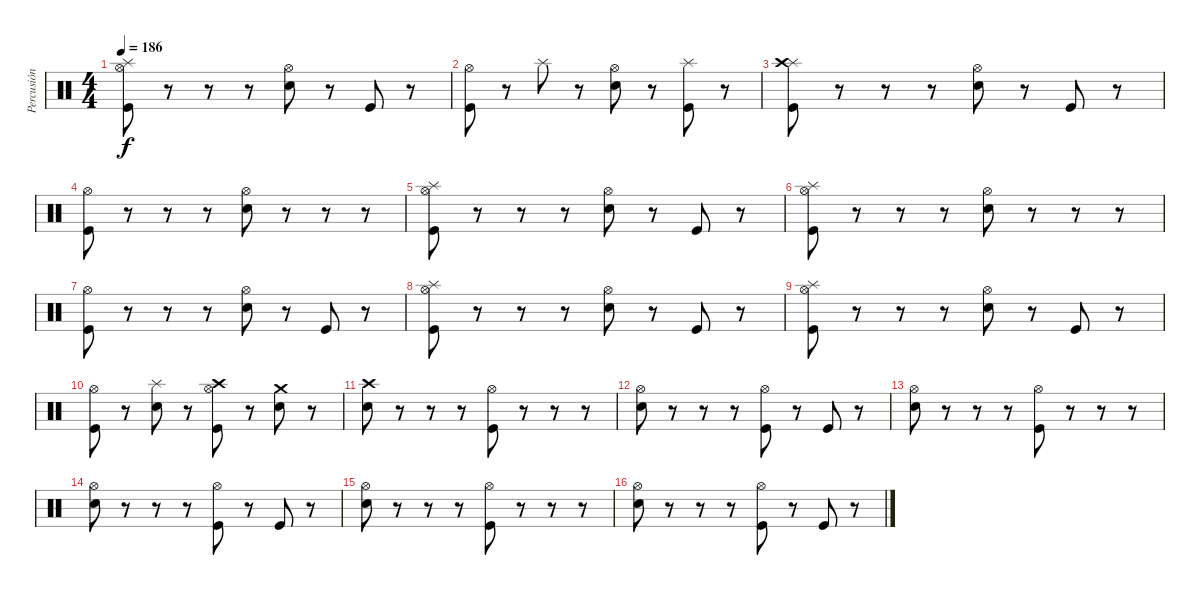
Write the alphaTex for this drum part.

\track ("Percusión" "Percusión") {instrument percussion}
\staff {score}
\articulation defaults
\ts (4 4)
\tempo 186
\clef neutral
\ks c
("Hi-Hat (open)" "Splash (hit)" "Kick (hit)").8{dy f} r.8 r.8 r.8 ("Hi-Hat (open)" "Snare (hit) 2").8 r.8 "Kick (hit)".8 r.8 |
("Hi-Hat (open)" "Kick (hit)").8 r.8 "Splash (hit)".8 r.8 ("Hi-Hat (open)" "Snare (hit) 2").8 r.8 ("Splash (hit)" "Kick (hit)").8 r.8 |
("Splash (hit)" "Crash high (hit)" "Kick (hit)").8 r.8 r.8 r.8 ("Hi-Hat (open)" "Snare (hit) 2").8 r.8 "Kick (hit)".8 r.8 |
("Hi-Hat (open)" "Kick (hit)").8 r.8 r.8 r.8 ("Hi-Hat (open)" "Snare (hit) 2").8 r.8 r.8 r.8 |
("Hi-Hat (open)" "Splash (hit)" "Kick (hit)").8 r.8 r.8 r.8 ("Hi-Hat (open)" "Snare (hit) 2").8 r.8 "Kick (hit)".8 r.8 |
("Hi-Hat (open)" "Splash (hit)" "Kick (hit)").8 r.8 r.8 r.8 ("Hi-Hat (open)" "Snare (hit) 2").8 r.8 r.8 r.8 |
("Hi-Hat (open)" "Kick (hit)").8 r.8 r.8 r.8 ("Hi-Hat (open)" "Snare (hit) 2").8 r.8 "Kick (hit)".8 r.8 |
("Hi-Hat (open)" "Splash (hit)" "Kick (hit)").8 r.8 r.8 r.8 ("Hi-Hat (open)" "Snare (hit) 2").8 r.8 "Kick (hit)".8 r.8 |
("Hi-Hat (open)" "Splash (hit)" "Kick (hit)").8 r.8 r.8 r.8 ("Hi-Hat (open)" "Snare (hit) 2").8 r.8 "Kick (hit)".8 r.8 |
("Hi-Hat (open)" "Kick (hit)").8 r.8 ("Splash (hit)" "Snare (hit) 2").8 r.8 ("Hi-Hat (open)" "Crash high (hit)" "Kick (hit)").8 r.8 ("Crash medium (hit)" "Snare (hit) 2").8 r.8 |
("Crash high (hit)" "Snare (hit) 2").8 r.8 r.8 r.8 ("Hi-Hat (open)" "Kick (hit)").8 r.8 r.8 r.8 |
("Hi-Hat (open)" "Snare (hit) 2").8 r.8 r.8 r.8 ("Hi-Hat (open)" "Kick (hit)").8 r.8 "Kick (hit)".8 r.8 |
("Hi-Hat (open)" "Snare (hit) 2").8 r.8 r.8 r.8 ("Hi-Hat (open)" "Kick (hit)").8 r.8 r.8 r.8 |
("Hi-Hat (open)" "Snare (hit) 2").8 r.8 r.8 r.8 ("Hi-Hat (open)" "Kick (hit)").8 r.8 "Kick (hit)".8 r.8 |
("Hi-Hat (open)" "Snare (hit) 2").8 r.8 r.8 r.8 ("Hi-Hat (open)" "Kick (hit)").8 r.8 r.8 r.8 |
("Hi-Hat (open)" "Snare (hit) 2").8 r.8 r.8 r.8 ("Hi-Hat (open)" "Kick (hit)").8 r.8 "Kick (hit)".8 r.8
